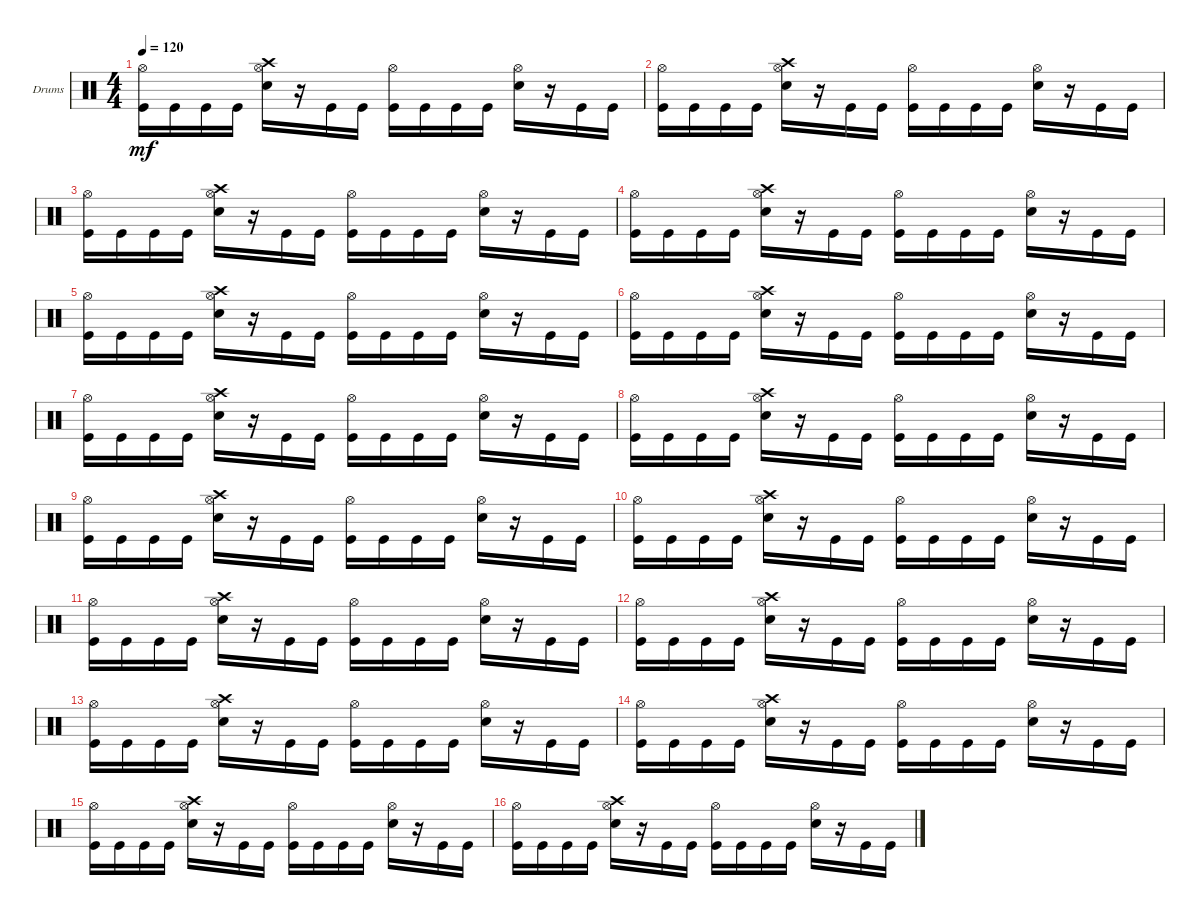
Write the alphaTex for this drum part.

\bracketExtendMode groupsimilarinstruments
\firstSystemTrackNameOrientation horizontal
\otherSystemsTrackNameOrientation horizontal
\track ("Drumkit" "Drums") {instrument percussion}
\staff {score}
\articulation defaults
\ts (4 4)
\tempo 120
\clef neutral
\scale
0.333333
\ks c
("Hi-Hat (open)" "Kick (hit)").16{dy mf} "Kick (hit)".16 "Kick (hit)".16 "Kick (hit)".16 ("Snare (hit) 2" "Crash high (hit)" "Hi-Hat (open)").16 r.16 "Kick (hit)".16 "Kick (hit)".16 ("Kick (hit)" "Hi-Hat (open)").16 "Kick (hit)".16 "Kick (hit)".16 "Kick (hit)".16 ("Snare (hit) 2" "Hi-Hat (open)").16 r.16 "Kick (hit)".16 "Kick (hit)".16 |
\scale
0.333333 ("Hi-Hat (open)" "Kick (hit)").16 "Kick (hit)".16 "Kick (hit)".16 "Kick (hit)".16 ("Snare (hit) 2" "Crash high (hit)" "Hi-Hat (open)").16 r.16 "Kick (hit)".16 "Kick (hit)".16 ("Kick (hit)" "Hi-Hat (open)").16 "Kick (hit)".16 "Kick (hit)".16 "Kick (hit)".16 ("Snare (hit) 2" "Hi-Hat (open)").16 r.16 "Kick (hit)".16 "Kick (hit)".16 |
\scale
0.333333 ("Hi-Hat (open)" "Kick (hit)").16 "Kick (hit)".16 "Kick (hit)".16 "Kick (hit)".16 ("Snare (hit) 2" "Crash high (hit)" "Hi-Hat (open)").16 r.16 "Kick (hit)".16 "Kick (hit)".16 ("Kick (hit)" "Hi-Hat (open)").16 "Kick (hit)".16 "Kick (hit)".16 "Kick (hit)".16 ("Snare (hit) 2" "Hi-Hat (open)").16 r.16 "Kick (hit)".16 "Kick (hit)".16 |
\scale
0.333333 ("Hi-Hat (open)" "Kick (hit)").16 "Kick (hit)".16 "Kick (hit)".16 "Kick (hit)".16 ("Snare (hit) 2" "Crash high (hit)" "Hi-Hat (open)").16 r.16 "Kick (hit)".16 "Kick (hit)".16 ("Kick (hit)" "Hi-Hat (open)").16 "Kick (hit)".16 "Kick (hit)".16 "Kick (hit)".16 ("Snare (hit) 2" "Hi-Hat (open)").16 r.16 "Kick (hit)".16 "Kick (hit)".16 |
\scale
0.333333 ("Hi-Hat (open)" "Kick (hit)").16 "Kick (hit)".16 "Kick (hit)".16 "Kick (hit)".16 ("Snare (hit) 2" "Crash high (hit)" "Hi-Hat (open)").16 r.16 "Kick (hit)".16 "Kick (hit)".16 ("Kick (hit)" "Hi-Hat (open)").16 "Kick (hit)".16 "Kick (hit)".16 "Kick (hit)".16 ("Snare (hit) 2" "Hi-Hat (open)").16 r.16 "Kick (hit)".16 "Kick (hit)".16 |
\scale
0.333333 ("Hi-Hat (open)" "Kick (hit)").16 "Kick (hit)".16 "Kick (hit)".16 "Kick (hit)".16 ("Snare (hit) 2" "Crash high (hit)" "Hi-Hat (open)").16 r.16 "Kick (hit)".16 "Kick (hit)".16 ("Kick (hit)" "Hi-Hat (open)").16 "Kick (hit)".16 "Kick (hit)".16 "Kick (hit)".16 ("Snare (hit) 2" "Hi-Hat (open)").16 r.16 "Kick (hit)".16 "Kick (hit)".16 |
\scale
0.333333 ("Hi-Hat (open)" "Kick (hit)").16 "Kick (hit)".16 "Kick (hit)".16 "Kick (hit)".16 ("Snare (hit) 2" "Crash high (hit)" "Hi-Hat (open)").16 r.16 "Kick (hit)".16 "Kick (hit)".16 ("Kick (hit)" "Hi-Hat (open)").16 "Kick (hit)".16 "Kick (hit)".16 "Kick (hit)".16 ("Snare (hit) 2" "Hi-Hat (open)").16 r.16 "Kick (hit)".16 "Kick (hit)".16 |
\scale
0.333333 ("Hi-Hat (open)" "Kick (hit)").16 "Kick (hit)".16 "Kick (hit)".16 "Kick (hit)".16 ("Snare (hit) 2" "Crash high (hit)" "Hi-Hat (open)").16 r.16 "Kick (hit)".16 "Kick (hit)".16 ("Kick (hit)" "Hi-Hat (open)").16 "Kick (hit)".16 "Kick (hit)".16 "Kick (hit)".16 ("Snare (hit) 2" "Hi-Hat (open)").16 r.16 "Kick (hit)".16 "Kick (hit)".16 |
\scale
0.333333 ("Hi-Hat (open)" "Kick (hit)").16 "Kick (hit)".16 "Kick (hit)".16 "Kick (hit)".16 ("Snare (hit) 2" "Crash high (hit)" "Hi-Hat (open)").16 r.16 "Kick (hit)".16 "Kick (hit)".16 ("Kick (hit)" "Hi-Hat (open)").16 "Kick (hit)".16 "Kick (hit)".16 "Kick (hit)".16 ("Snare (hit) 2" "Hi-Hat (open)").16 r.16 "Kick (hit)".16 "Kick (hit)".16 |
\scale
0.333333 ("Hi-Hat (open)" "Kick (hit)").16 "Kick (hit)".16 "Kick (hit)".16 "Kick (hit)".16 ("Snare (hit) 2" "Crash high (hit)" "Hi-Hat (open)").16 r.16 "Kick (hit)".16 "Kick (hit)".16 ("Kick (hit)" "Hi-Hat (open)").16 "Kick (hit)".16 "Kick (hit)".16 "Kick (hit)".16 ("Snare (hit) 2" "Hi-Hat (open)").16 r.16 "Kick (hit)".16 "Kick (hit)".16 |
\scale
0.333333 ("Hi-Hat (open)" "Kick (hit)").16 "Kick (hit)".16 "Kick (hit)".16 "Kick (hit)".16 ("Snare (hit) 2" "Crash high (hit)" "Hi-Hat (open)").16 r.16 "Kick (hit)".16 "Kick (hit)".16 ("Kick (hit)" "Hi-Hat (open)").16 "Kick (hit)".16 "Kick (hit)".16 "Kick (hit)".16 ("Snare (hit) 2" "Hi-Hat (open)").16 r.16 "Kick (hit)".16 "Kick (hit)".16 |
\scale
0.333333 ("Hi-Hat (open)" "Kick (hit)").16 "Kick (hit)".16 "Kick (hit)".16 "Kick (hit)".16 ("Snare (hit) 2" "Crash high (hit)" "Hi-Hat (open)").16 r.16 "Kick (hit)".16 "Kick (hit)".16 ("Kick (hit)" "Hi-Hat (open)").16 "Kick (hit)".16 "Kick (hit)".16 "Kick (hit)".16 ("Snare (hit) 2" "Hi-Hat (open)").16 r.16 "Kick (hit)".16 "Kick (hit)".16 |
\scale
0.333333 ("Hi-Hat (open)" "Kick (hit)").16 "Kick (hit)".16 "Kick (hit)".16 "Kick (hit)".16 ("Snare (hit) 2" "Crash high (hit)" "Hi-Hat (open)").16 r.16 "Kick (hit)".16 "Kick (hit)".16 ("Kick (hit)" "Hi-Hat (open)").16 "Kick (hit)".16 "Kick (hit)".16 "Kick (hit)".16 ("Snare (hit) 2" "Hi-Hat (open)").16 r.16 "Kick (hit)".16 "Kick (hit)".16 |
\scale
0.333333 ("Hi-Hat (open)" "Kick (hit)").16 "Kick (hit)".16 "Kick (hit)".16 "Kick (hit)".16 ("Snare (hit) 2" "Crash high (hit)" "Hi-Hat (open)").16 r.16 "Kick (hit)".16 "Kick (hit)".16 ("Kick (hit)" "Hi-Hat (open)").16 "Kick (hit)".16 "Kick (hit)".16 "Kick (hit)".16 ("Snare (hit) 2" "Hi-Hat (open)").16 r.16 "Kick (hit)".16 "Kick (hit)".16 |
\scale
0.333333 ("Hi-Hat (open)" "Kick (hit)").16 "Kick (hit)".16 "Kick (hit)".16 "Kick (hit)".16 ("Snare (hit) 2" "Crash high (hit)" "Hi-Hat (open)").16 r.16 "Kick (hit)".16 "Kick (hit)".16 ("Kick (hit)" "Hi-Hat (open)").16 "Kick (hit)".16 "Kick (hit)".16 "Kick (hit)".16 ("Snare (hit) 2" "Hi-Hat (open)").16 r.16 "Kick (hit)".16 "Kick (hit)".16 |
\scale
0.333333 ("Hi-Hat (open)" "Kick (hit)").16 "Kick (hit)".16 "Kick (hit)".16 "Kick (hit)".16 ("Snare (hit) 2" "Crash high (hit)" "Hi-Hat (open)").16 r.16 "Kick (hit)".16 "Kick (hit)".16 ("Kick (hit)" "Hi-Hat (open)").16 "Kick (hit)".16 "Kick (hit)".16 "Kick (hit)".16 ("Snare (hit) 2" "Hi-Hat (open)").16 r.16 "Kick (hit)".16 "Kick (hit)".16
